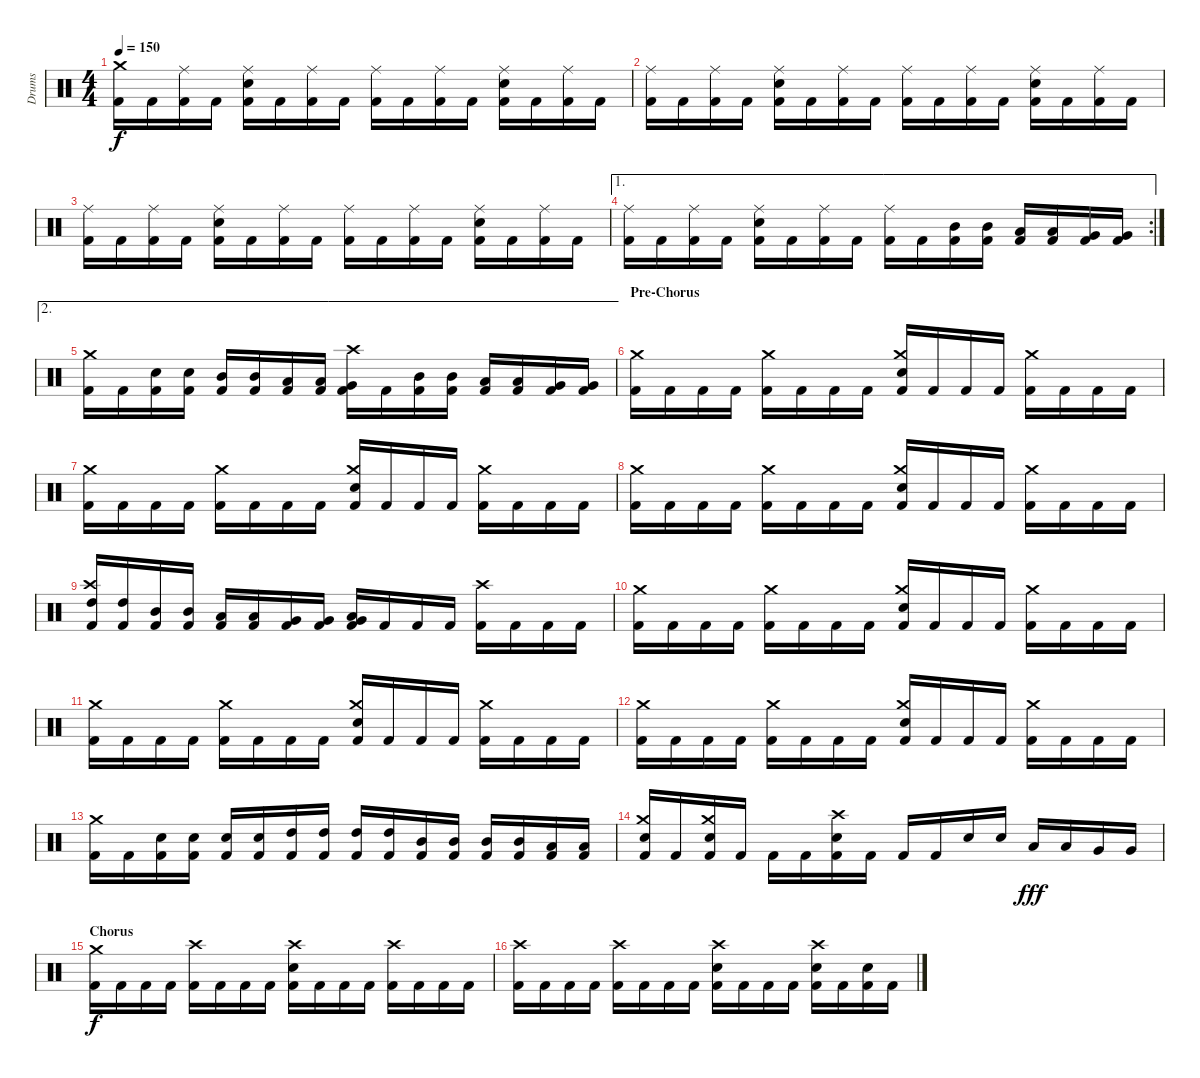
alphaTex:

\track ("Drums" "Drums") {instrument percussion}
\staff {score}
\articulation defaults
\ts (4 4)
\tempo 150
\clef neutral
\ks c
("Kick (hit) 2" "Crash medium (hit)").16{dy f} "Kick (hit) 2".16 ("Kick (hit) 2" "Ride (middle)").16 "Kick (hit) 2".16 ("Kick (hit) 2" "Electric Snare (hit)" "Ride (middle)").16 "Kick (hit) 2".16 ("Kick (hit) 2" "Ride (middle)").16 "Kick (hit) 2".16 ("Kick (hit) 2" "Ride (middle)").16 "Kick (hit) 2".16 ("Kick (hit) 2" "Ride (middle)").16 "Kick (hit) 2".16 ("Kick (hit) 2" "Electric Snare (hit)" "Ride (middle)").16 "Kick (hit) 2".16 ("Kick (hit) 2" "Ride (middle)").16 "Kick (hit) 2".16 |
("Kick (hit) 2" "Ride (middle)").16 "Kick (hit) 2".16 ("Kick (hit) 2" "Ride (middle)").16 "Kick (hit) 2".16 ("Kick (hit) 2" "Electric Snare (hit)" "Ride (middle)").16 "Kick (hit) 2".16 ("Kick (hit) 2" "Ride (middle)").16 "Kick (hit) 2".16 ("Kick (hit) 2" "Ride (middle)").16 "Kick (hit) 2".16 ("Kick (hit) 2" "Ride (middle)").16 "Kick (hit) 2".16 ("Kick (hit) 2" "Electric Snare (hit)" "Ride (middle)").16 "Kick (hit) 2".16 ("Kick (hit) 2" "Ride (middle)").16 "Kick (hit) 2".16 |
("Kick (hit) 2" "Ride (middle)").16 "Kick (hit) 2".16 ("Kick (hit) 2" "Ride (middle)").16 "Kick (hit) 2".16 ("Kick (hit) 2" "Electric Snare (hit)" "Ride (middle)").16 "Kick (hit) 2".16 ("Kick (hit) 2" "Ride (middle)").16 "Kick (hit) 2".16 ("Kick (hit) 2" "Ride (middle)").16 "Kick (hit) 2".16 ("Kick (hit) 2" "Ride (middle)").16 "Kick (hit) 2".16 ("Kick (hit) 2" "Electric Snare (hit)" "Ride (middle)").16 "Kick (hit) 2".16 ("Kick (hit) 2" "Ride (middle)").16 "Kick (hit) 2".16 |
\ae 1
\rc 2
("Kick (hit) 2" "Ride (middle)").16 "Kick (hit) 2".16 ("Kick (hit) 2" "Ride (middle)").16 "Kick (hit) 2".16 ("Kick (hit) 2" "Electric Snare (hit)" "Ride (middle)").16 "Kick (hit) 2".16 ("Kick (hit) 2" "Ride (middle)").16 "Kick (hit) 2".16 ("Kick (hit) 2" "Ride (middle)").16 "Kick (hit) 2".16 ("Kick (hit) 2" "Mid Tom (hit)").16 ("Kick (hit) 2" "Mid Tom (hit)").16 ("Kick (hit) 2" "Low Tom (hit)").16 ("Kick (hit) 2" "Low Tom (hit)").16 ("Kick (hit) 2" "Very Low Tom (hit)").16 ("Kick (hit) 2" "Very Low Tom (hit)").16 |
\ae 2
("Kick (hit) 2" "Crash medium (hit)").16 "Kick (hit) 2".16 ("Kick (hit) 2" "Electric Snare (hit)").16 ("Kick (hit) 2" "Electric Snare (hit)").16 ("Kick (hit) 2" "Mid Tom (hit)").16 ("Kick (hit) 2" "Mid Tom (hit)").16 ("Kick (hit) 2" "Low Tom (hit)").16 ("Kick (hit) 2" "Low Tom (hit)").16 ("Kick (hit) 2" "Very Low Tom (hit)" "Crash high (hit)").16 "Kick (hit) 2".16 ("Kick (hit) 2" "Mid Tom (hit)").16 ("Kick (hit) 2" "Mid Tom (hit)").16 ("Kick (hit) 2" "Low Tom (hit)").16 ("Kick (hit) 2" "Low Tom (hit)").16 ("Kick (hit) 2" "Very Low Tom (hit)").16 ("Kick (hit) 2" "Very Low Tom (hit)").16 |
\section ("" "Pre-Chorus")
("Kick (hit) 2" "Crash medium (hit)").16 "Kick (hit) 2".16 "Kick (hit) 2".16 "Kick (hit) 2".16 ("Kick (hit) 2" "Crash medium (hit)").16 "Kick (hit) 2".16 "Kick (hit) 2".16 "Kick (hit) 2".16 ("Kick (hit) 2" "Electric Snare (hit)" "Crash medium (hit)").16 "Kick (hit) 2".16 "Kick (hit) 2".16 "Kick (hit) 2".16 ("Kick (hit) 2" "Crash medium (hit)").16 "Kick (hit) 2".16 "Kick (hit) 2".16 "Kick (hit) 2".16 |
("Kick (hit) 2" "Crash medium (hit)").16 "Kick (hit) 2".16 "Kick (hit) 2".16 "Kick (hit) 2".16 ("Kick (hit) 2" "Crash medium (hit)").16 "Kick (hit) 2".16 "Kick (hit) 2".16 "Kick (hit) 2".16 ("Kick (hit) 2" "Electric Snare (hit)" "Crash medium (hit)").16 "Kick (hit) 2".16 "Kick (hit) 2".16 "Kick (hit) 2".16 ("Kick (hit) 2" "Crash medium (hit)").16 "Kick (hit) 2".16 "Kick (hit) 2".16 "Kick (hit) 2".16 |
("Kick (hit) 2" "Crash medium (hit)").16 "Kick (hit) 2".16 "Kick (hit) 2".16 "Kick (hit) 2".16 ("Kick (hit) 2" "Crash medium (hit)").16 "Kick (hit) 2".16 "Kick (hit) 2".16 "Kick (hit) 2".16 ("Kick (hit) 2" "Electric Snare (hit)" "Crash medium (hit)").16 "Kick (hit) 2".16 "Kick (hit) 2".16 "Kick (hit) 2".16 ("Kick (hit) 2" "Crash medium (hit)").16 "Kick (hit) 2".16 "Kick (hit) 2".16 "Kick (hit) 2".16 |
("Kick (hit) 2" "High Tom (hit)" "Crash high (hit)").16 ("Kick (hit) 2" "High Tom (hit)").16 ("Kick (hit) 2" "Mid Tom (hit)").16 ("Kick (hit) 2" "Mid Tom (hit)").16 ("Kick (hit) 2" "Low Tom (hit)").16 ("Kick (hit) 2" "Low Tom (hit)").16 ("Kick (hit) 2" "Very Low Tom (hit)").16 ("Kick (hit) 2" "Very Low Tom (hit)").16 ("Kick (hit) 2" "Low Tom (hit)" "Very Low Tom (hit)").16 "Kick (hit) 2".16 "Kick (hit) 2".16 "Kick (hit) 2".16 ("Kick (hit) 2" "Crash high (hit)").16 "Kick (hit) 2".16 "Kick (hit) 2".16 "Kick (hit) 2".16 |
("Kick (hit) 2" "Crash medium (hit)").16 "Kick (hit) 2".16 "Kick (hit) 2".16 "Kick (hit) 2".16 ("Kick (hit) 2" "Crash medium (hit)").16 "Kick (hit) 2".16 "Kick (hit) 2".16 "Kick (hit) 2".16 ("Kick (hit) 2" "Electric Snare (hit)" "Crash medium (hit)").16 "Kick (hit) 2".16 "Kick (hit) 2".16 "Kick (hit) 2".16 ("Kick (hit) 2" "Crash medium (hit)").16 "Kick (hit) 2".16 "Kick (hit) 2".16 "Kick (hit) 2".16 |
("Kick (hit) 2" "Crash medium (hit)").16 "Kick (hit) 2".16 "Kick (hit) 2".16 "Kick (hit) 2".16 ("Kick (hit) 2" "Crash medium (hit)").16 "Kick (hit) 2".16 "Kick (hit) 2".16 "Kick (hit) 2".16 ("Kick (hit) 2" "Electric Snare (hit)" "Crash medium (hit)").16 "Kick (hit) 2".16 "Kick (hit) 2".16 "Kick (hit) 2".16 ("Kick (hit) 2" "Crash medium (hit)").16 "Kick (hit) 2".16 "Kick (hit) 2".16 "Kick (hit) 2".16 |
("Kick (hit) 2" "Crash medium (hit)").16 "Kick (hit) 2".16 "Kick (hit) 2".16 "Kick (hit) 2".16 ("Kick (hit) 2" "Crash medium (hit)").16 "Kick (hit) 2".16 "Kick (hit) 2".16 "Kick (hit) 2".16 ("Kick (hit) 2" "Electric Snare (hit)" "Crash medium (hit)").16 "Kick (hit) 2".16 "Kick (hit) 2".16 "Kick (hit) 2".16 ("Kick (hit) 2" "Crash medium (hit)").16 "Kick (hit) 2".16 "Kick (hit) 2".16 "Kick (hit) 2".16 |
("Kick (hit) 2" "Crash medium (hit)").16 "Kick (hit) 2".16 ("Kick (hit) 2" "Electric Snare (hit)").16 ("Kick (hit) 2" "Electric Snare (hit)").16 ("Kick (hit) 2" "Electric Snare (hit)").16 ("Kick (hit) 2" "Electric Snare (hit)").16 ("Kick (hit) 2" "High Tom (hit)").16 ("Kick (hit) 2" "High Tom (hit)").16 ("Kick (hit) 2" "High Tom (hit)").16 ("Kick (hit) 2" "High Tom (hit)").16 ("Kick (hit) 2" "Mid Tom (hit)").16 ("Kick (hit) 2" "Mid Tom (hit)").16 ("Kick (hit) 2" "Mid Tom (hit)").16 ("Kick (hit) 2" "Mid Tom (hit)").16 ("Kick (hit) 2" "Low Tom (hit)").16 ("Kick (hit) 2" "Low Tom (hit)").16 |
("Kick (hit) 2" "Electric Snare (hit)" "Crash medium (hit)").16 "Kick (hit) 2".16 ("Kick (hit) 2" "Electric Snare (hit)" "Crash medium (hit)").16 "Kick (hit) 2".16 "Kick (hit) 2".16 "Kick (hit) 2".16 ("Kick (hit) 2" "Electric Snare (hit)" "Crash high (hit)").16 "Kick (hit) 2".16 "Kick (hit) 2".16 "Kick (hit) 2".16 "Electric Snare (hit)".16 "Electric Snare (hit)".16 "Low Tom (hit)".16{dy fff} "Low Tom (hit)".16 "Very Low Tom (hit)".16 "Very Low Tom (hit)".16 |
\section ("" "Chorus")
("Kick (hit) 2" "Crash medium (hit)").16{dy f} "Kick (hit) 2".16 "Kick (hit) 2".16 "Kick (hit) 2".16 ("Kick (hit) 2" "Crash high (hit)").16 "Kick (hit) 2".16 "Kick (hit) 2".16 "Kick (hit) 2".16 ("Kick (hit) 2" "Electric Snare (hit)" "Crash high (hit)").16 "Kick (hit) 2".16 "Kick (hit) 2".16 "Kick (hit) 2".16 ("Kick (hit) 2" "Crash high (hit)").16 "Kick (hit) 2".16 "Kick (hit) 2".16 "Kick (hit) 2".16 |
("Kick (hit) 2" "Crash high (hit)").16 "Kick (hit) 2".16 "Kick (hit) 2".16 "Kick (hit) 2".16 ("Kick (hit) 2" "Crash high (hit)").16 "Kick (hit) 2".16 "Kick (hit) 2".16 "Kick (hit) 2".16 ("Kick (hit) 2" "Electric Snare (hit)" "Crash high (hit)").16 "Kick (hit) 2".16 "Kick (hit) 2".16 "Kick (hit) 2".16 ("Kick (hit) 2" "Electric Snare (hit)" "Crash high (hit)").16 "Kick (hit) 2".16 ("Kick (hit) 2" "Electric Snare (hit)").16 "Kick (hit) 2".16
